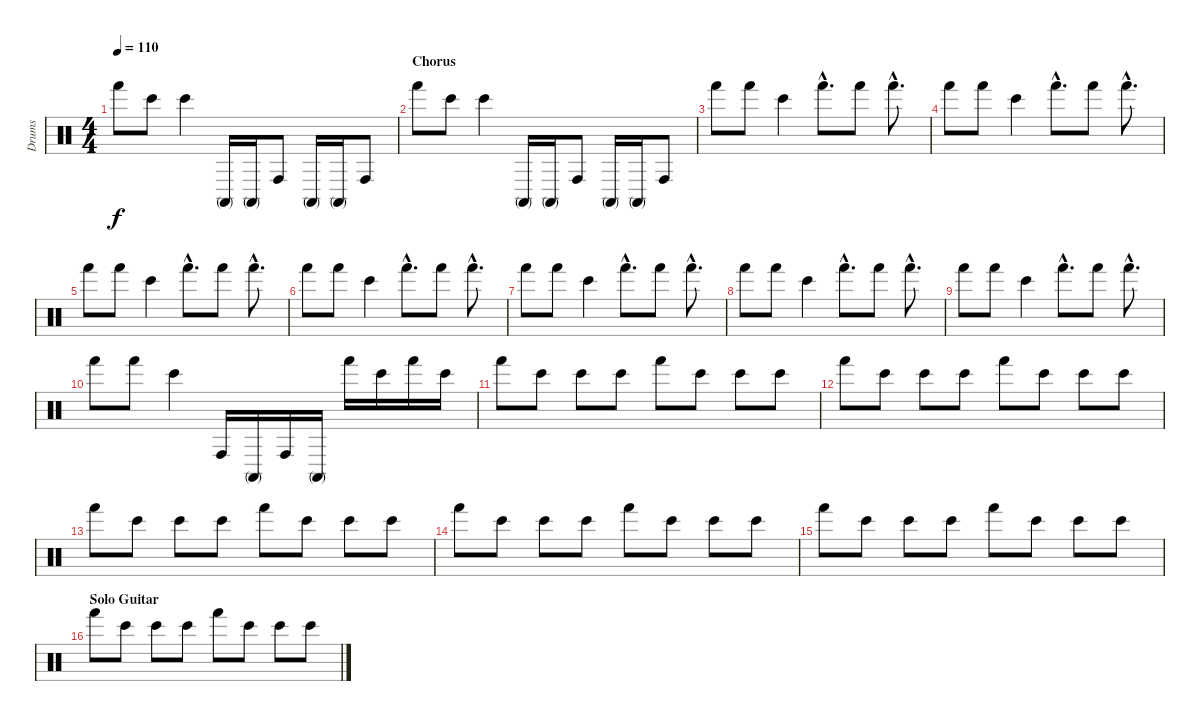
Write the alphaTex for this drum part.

\track ("Drums" "Drums") {instrument percussion}
\staff {score}
\articulation defaults
\ts (4 4)
\tempo 110
\clef neutral
\ks c "Hand (hit)".8{dy f} "Bongo High (hit)".8 "Bongo High (hit)".4 "Conga high (mute)".16 "Conga high (mute)".16 "Conga high (hit)".8 "Conga high (mute)".16 "Conga high (mute)".16 "Conga high (hit)".8
|
\section ("" "Chorus")
"Hand (hit)".8 "Bongo High (hit)".8 "Bongo High (hit)".4 "Conga high (mute)".16 "Conga high (mute)".16 "Conga high (hit)".8 "Conga high (mute)".16 "Conga high (mute)".16 "Conga high (hit)".8 |
"Hand (hit)".8 "Hand (hit)".8 "Bongo High (hit)".4 "Hand (hit)"{hac}.8{d} "Hand (hit)".8 "Hand (hit)"{hac}.8{d} |
"Hand (hit)".8 "Hand (hit)".8 "Bongo High (hit)".4 "Hand (hit)"{hac}.8{d} "Hand (hit)".8 "Hand (hit)"{hac}.8{d} |
"Hand (hit)".8 "Hand (hit)".8 "Bongo High (hit)".4 "Hand (hit)"{hac}.8{d} "Hand (hit)".8 "Hand (hit)"{hac}.8{d} |
"Hand (hit)".8 "Hand (hit)".8 "Bongo High (hit)".4 "Hand (hit)"{hac}.8{d} "Hand (hit)".8 "Hand (hit)"{hac}.8{d} |
"Hand (hit)".8 "Hand (hit)".8 "Bongo High (hit)".4 "Hand (hit)"{hac}.8{d} "Hand (hit)".8 "Hand (hit)"{hac}.8{d} |
"Hand (hit)".8 "Hand (hit)".8 "Bongo High (hit)".4 "Hand (hit)"{hac}.8{d} "Hand (hit)".8 "Hand (hit)"{hac}.8{d} |
"Hand (hit)".8 "Hand (hit)".8 "Bongo High (hit)".4 "Hand (hit)"{hac}.8{d} "Hand (hit)".8 "Hand (hit)"{hac}.8{d} |
"Hand (hit)".8 "Hand (hit)".8 "Bongo High (hit)".4 "Conga high (hit)".16 "Conga high (mute)".16 "Conga high (hit)".16 "Conga high (mute)".16 "Hand (hit)".16 "Bongo High (hit)".16 "Hand (hit)".16 "Bongo High (hit)".16 |
"Hand (hit)".8 "Bongo High (hit)".8 "Bongo High (hit)".8 "Bongo High (hit)".8 "Hand (hit)".8 "Bongo High (hit)".8 "Bongo High (hit)".8 "Bongo High (hit)".8 |
"Hand (hit)".8 "Bongo High (hit)".8 "Bongo High (hit)".8 "Bongo High (hit)".8 "Hand (hit)".8 "Bongo High (hit)".8 "Bongo High (hit)".8 "Bongo High (hit)".8 |
"Hand (hit)".8 "Bongo High (hit)".8 "Bongo High (hit)".8 "Bongo High (hit)".8 "Hand (hit)".8 "Bongo High (hit)".8 "Bongo High (hit)".8 "Bongo High (hit)".8 |
"Hand (hit)".8 "Bongo High (hit)".8 "Bongo High (hit)".8 "Bongo High (hit)".8 "Hand (hit)".8 "Bongo High (hit)".8 "Bongo High (hit)".8 "Bongo High (hit)".8 |
"Hand (hit)".8 "Bongo High (hit)".8 "Bongo High (hit)".8 "Bongo High (hit)".8 "Hand (hit)".8 "Bongo High (hit)".8 "Bongo High (hit)".8 "Bongo High (hit)".8 |
\section ("" "Solo Guitar")
"Hand (hit)".8 "Bongo High (hit)".8 "Bongo High (hit)".8 "Bongo High (hit)".8 "Hand (hit)".8 "Bongo High (hit)".8 "Bongo High (hit)".8 "Bongo High (hit)".8
